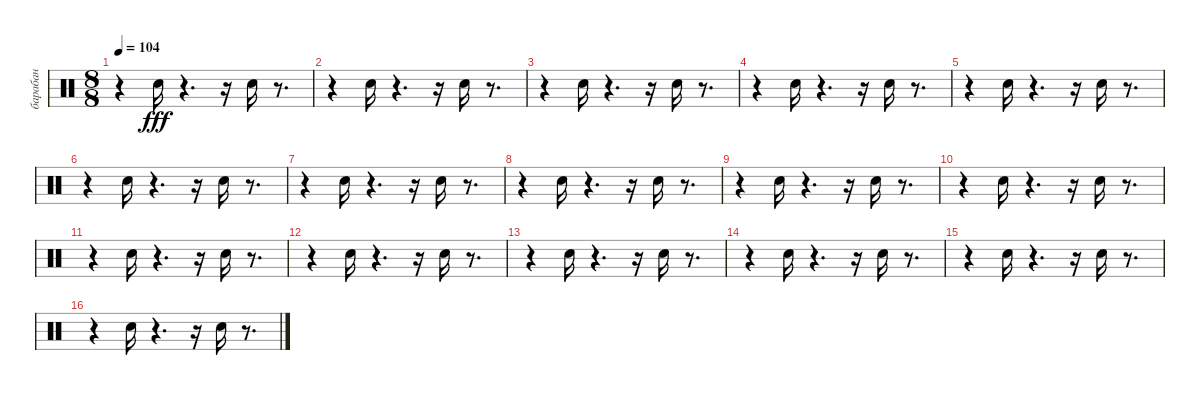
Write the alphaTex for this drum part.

\track ("барабан" "барабан") {instrument percussion}
\staff {score}
\articulation defaults
\ts (8 8)
\tempo 104
\clef neutral
\ks c
r.4{dy fff} "Snare (hit) 2".16 r.4{d} r.16 "Snare (hit) 2".16 r.8{d} |
r.4 "Snare (hit) 2".16 r.4{d} r.16 "Snare (hit) 2".16 r.8{d} |
r.4 "Snare (hit) 2".16 r.4{d} r.16 "Snare (hit) 2".16 r.8{d} |
r.4 "Snare (hit) 2".16 r.4{d} r.16 "Snare (hit) 2".16 r.8{d} |
r.4 "Snare (hit) 2".16 r.4{d} r.16 "Snare (hit) 2".16 r.8{d} |
r.4 "Snare (hit) 2".16 r.4{d} r.16 "Snare (hit) 2".16 r.8{d} |
r.4 "Snare (hit) 2".16 r.4{d} r.16 "Snare (hit) 2".16 r.8{d} |
r.4 "Snare (hit) 2".16 r.4{d} r.16 "Snare (hit) 2".16 r.8{d} |
r.4 "Snare (hit) 2".16 r.4{d} r.16 "Snare (hit) 2".16 r.8{d} |
r.4 "Snare (hit) 2".16 r.4{d} r.16 "Snare (hit) 2".16 r.8{d} |
r.4 "Snare (hit) 2".16 r.4{d} r.16 "Snare (hit) 2".16 r.8{d} |
r.4 "Snare (hit) 2".16 r.4{d} r.16 "Snare (hit) 2".16 r.8{d} |
r.4 "Snare (hit) 2".16 r.4{d} r.16 "Snare (hit) 2".16 r.8{d} |
r.4 "Snare (hit) 2".16 r.4{d} r.16 "Snare (hit) 2".16 r.8{d} |
r.4 "Snare (hit) 2".16 r.4{d} r.16 "Snare (hit) 2".16 r.8{d} |
r.4 "Snare (hit) 2".16 r.4{d} r.16 "Snare (hit) 2".16 r.8{d}
